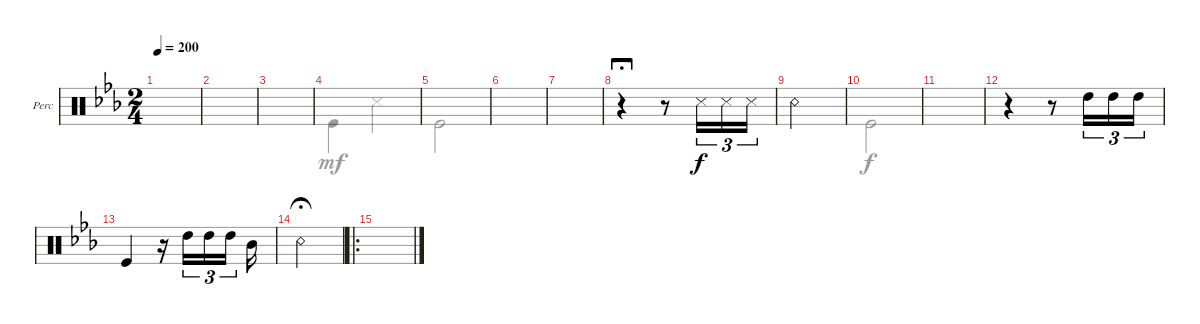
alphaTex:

\defaultSystemsLayout 4
\bracketExtendMode groupsimilarinstruments
\firstSystemTrackNameOrientation horizontal
\otherSystemsTrackNameOrientation horizontal
\track ("Body Percussion" "Perc") {instrument percussion}
\staff {score}
\articulation defaults
\voice
\ts (2 4)
\tempo 200
\clef neutral
\ks cminor
|
|
|
|
|
|
\scale
0.422993 |
\scale
0.451081 r.4{fermata (long 0.83)} r.8 "Snare (side stick) 3".16{tu (3 2)} "Snare (side stick) 3".16{tu (3 2)} "Snare (side stick) 3".16{tu (3 2)} |
\scale
0.125996 "Snare (rim shot)".2 |
\scale
0.248082 |
\scale
0.240186 |
\scale
0.241021 r.4 r.8 "High Tom (hit)".16{tu (3 2)} "High Tom (hit)".16{tu (3 2)} "High Tom (hit)".16{tu (3 2)} |
\scale
0.271217 "Kick (hit)".4 r.16 "High Tom (hit)".16{tu (3 2)} "High Tom (hit)".16{tu (3 2)} "High Tom (hit)".16{tu (3 2)} "Mid Tom (hit)".16 |
\scale
0.210992 "Snare (rim shot)".2{fermata (medium 0.5)} |
\ro
\scale
0.181746 |
\scale
0.202481
\voice
\clef neutral
\ottava regular
\simile none
\ks cminor
|
|
|
"Kick (hit)".4{dy mf} "Snare (side stick) 3".4 |
"Kick (hit)".2 |
|
|
|
|
"Kick (hit)".2{dy f} |
|
|
|
|
|
